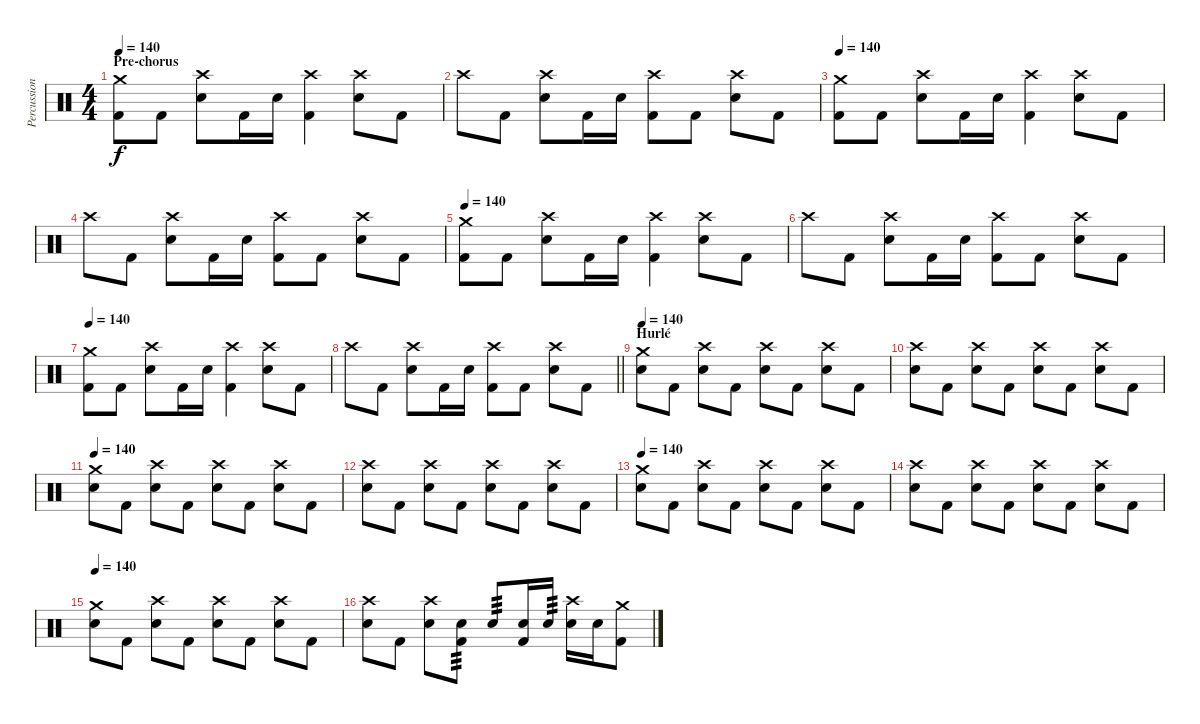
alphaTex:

\track ("Percussion" "Percussion") {instrument percussion}
\staff {score}
\articulation defaults
\ts (4 4)
\section ("" "Pre-chorus")
\tempo 140
\clef neutral
\ks c
("Crash medium (hit)" "Kick (hit) 2").8{dy f} "Kick (hit) 2".8 ("Crash high (hit)" "Electric Snare (hit)").8 "Kick (hit) 2".16 "Electric Snare (hit)".16 ("Crash high (hit)" "Kick (hit) 2").4 ("Crash high (hit)" "Electric Snare (hit)").8 "Kick (hit) 2".8 |
"Crash high (hit)".8 "Kick (hit) 2".8 ("Crash high (hit)" "Electric Snare (hit)").8 "Kick (hit) 2".16 "Electric Snare (hit)".16 ("Crash high (hit)" "Kick (hit) 2").8 "Kick (hit) 2".8 ("Crash high (hit)" "Electric Snare (hit)").8 "Kick (hit) 2".8 |
\tempo 140
("Crash medium (hit)" "Kick (hit) 2").8 "Kick (hit) 2".8 ("Crash high (hit)" "Electric Snare (hit)").8 "Kick (hit) 2".16 "Electric Snare (hit)".16 ("Crash high (hit)" "Kick (hit) 2").4 ("Crash high (hit)" "Electric Snare (hit)").8 "Kick (hit) 2".8 |
"Crash high (hit)".8 "Kick (hit) 2".8 ("Crash high (hit)" "Electric Snare (hit)").8 "Kick (hit) 2".16 "Electric Snare (hit)".16 ("Crash high (hit)" "Kick (hit) 2").8 "Kick (hit) 2".8 ("Crash high (hit)" "Electric Snare (hit)").8 "Kick (hit) 2".8 |
\tempo 140
("Crash medium (hit)" "Kick (hit) 2").8 "Kick (hit) 2".8 ("Crash high (hit)" "Electric Snare (hit)").8 "Kick (hit) 2".16 "Electric Snare (hit)".16 ("Crash high (hit)" "Kick (hit) 2").4 ("Crash high (hit)" "Electric Snare (hit)").8 "Kick (hit) 2".8 |
"Crash high (hit)".8 "Kick (hit) 2".8 ("Crash high (hit)" "Electric Snare (hit)").8 "Kick (hit) 2".16 "Electric Snare (hit)".16 ("Crash high (hit)" "Kick (hit) 2").8 "Kick (hit) 2".8 ("Crash high (hit)" "Electric Snare (hit)").8 "Kick (hit) 2".8 |
\tempo 140
("Crash medium (hit)" "Kick (hit) 2").8 "Kick (hit) 2".8 ("Crash high (hit)" "Electric Snare (hit)").8 "Kick (hit) 2".16 "Electric Snare (hit)".16 ("Crash high (hit)" "Kick (hit) 2").4 ("Crash high (hit)" "Electric Snare (hit)").8 "Kick (hit) 2".8 |
\barLineRight lightlight "Crash high (hit)".8 "Kick (hit) 2".8
("Crash high (hit)" "Electric Snare (hit)").8 "Kick (hit) 2".16 "Electric Snare (hit)".16 ("Crash high (hit)" "Kick (hit) 2").8 "Kick (hit) 2".8 ("Crash high (hit)" "Electric Snare (hit)").8 "Kick (hit) 2".8 |
\section ("" "Hurlé")
\tempo 140
("Crash medium (hit)" "Electric Snare (hit)").8 "Kick (hit) 2".8 ("Crash high (hit)" "Electric Snare (hit)").8 "Kick (hit) 2".8 ("Crash high (hit)" "Electric Snare (hit)").8 "Kick (hit) 2".8 ("Crash high (hit)" "Electric Snare (hit)").8 "Kick (hit) 2".8 |
("Crash high (hit)" "Electric Snare (hit)").8 "Kick (hit) 2".8 ("Crash high (hit)" "Electric Snare (hit)").8 "Kick (hit) 2".8 ("Crash high (hit)" "Electric Snare (hit)").8 "Kick (hit) 2".8 ("Crash high (hit)" "Electric Snare (hit)").8 "Kick (hit) 2".8 |
\tempo 140
("Crash medium (hit)" "Electric Snare (hit)").8 "Kick (hit) 2".8 ("Crash high (hit)" "Electric Snare (hit)").8 "Kick (hit) 2".8 ("Crash high (hit)" "Electric Snare (hit)").8 "Kick (hit) 2".8 ("Crash high (hit)" "Electric Snare (hit)").8 "Kick (hit) 2".8 |
("Crash high (hit)" "Electric Snare (hit)").8 "Kick (hit) 2".8 ("Crash high (hit)" "Electric Snare (hit)").8 "Kick (hit) 2".8 ("Crash high (hit)" "Electric Snare (hit)").8 "Kick (hit) 2".8 ("Crash high (hit)" "Electric Snare (hit)").8 "Kick (hit) 2".8 |
\tempo 140
("Crash medium (hit)" "Electric Snare (hit)").8 "Kick (hit) 2".8 ("Crash high (hit)" "Electric Snare (hit)").8 "Kick (hit) 2".8 ("Crash high (hit)" "Electric Snare (hit)").8 "Kick (hit) 2".8 ("Crash high (hit)" "Electric Snare (hit)").8 "Kick (hit) 2".8 |
("Crash high (hit)" "Electric Snare (hit)").8 "Kick (hit) 2".8 ("Crash high (hit)" "Electric Snare (hit)").8 "Kick (hit) 2".8 ("Crash high (hit)" "Electric Snare (hit)").8 "Kick (hit) 2".8 ("Crash high (hit)" "Electric Snare (hit)").8 "Kick (hit) 2".8 |
\tempo 140
("Crash medium (hit)" "Electric Snare (hit)").8 "Kick (hit) 2".8 ("Crash high (hit)" "Electric Snare (hit)").8 "Kick (hit) 2".8 ("Crash high (hit)" "Electric Snare (hit)").8 "Kick (hit) 2".8 ("Crash high (hit)" "Electric Snare (hit)").8 "Kick (hit) 2".8 |
("Crash high (hit)" "Electric Snare (hit)").8 "Kick (hit) 2".8 ("Crash high (hit)" "Electric Snare (hit)").8 ("Electric Snare (hit)" "Kick (hit) 2").8{tp 3} "Electric Snare (hit)".8{tp 3} ("Electric Snare (hit)" "Kick (hit) 2").16 "Electric Snare (hit)".16{tp 3} ("Crash high (hit)" "Electric Snare (hit)").16 "Electric Snare (hit)".16 ("Crash medium (hit)" "Kick (hit) 2").8
